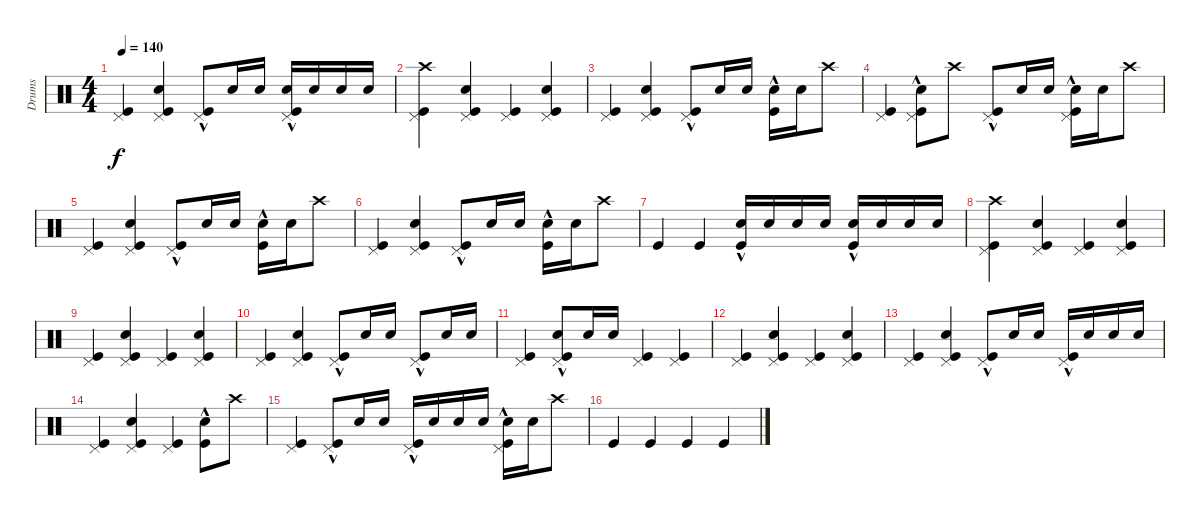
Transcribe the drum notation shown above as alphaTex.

\track ("Drums" "Drums") {instrument percussion}
\staff {score}
\articulation defaults
\ts (4 4)
\tempo 140
\clef neutral
\ks c
("Kick (hit)" "Pedal Hi-Hat (hit)").4{dy f} ("Kick (hit)" "Snare (hit) 2" "Pedal Hi-Hat (hit)").4 ("Kick (hit)"{hac} "Pedal Hi-Hat (hit)").8 "Snare (hit) 2".16 "Snare (hit) 2".16 ("Kick (hit)"{hac} "Snare (hit) 2" "Pedal Hi-Hat (hit)").16 "Snare (hit) 2".16 "Snare (hit) 2".16 "Snare (hit) 2".16 |
("Kick (hit)" "Pedal Hi-Hat (hit)" "Crash high (hit)").4 ("Kick (hit)" "Pedal Hi-Hat (hit)" "Snare (hit) 2").4 ("Kick (hit)" "Pedal Hi-Hat (hit)").4 ("Kick (hit)" "Pedal Hi-Hat (hit)" "Snare (hit) 2").4 |
("Kick (hit)" "Pedal Hi-Hat (hit)").4 ("Kick (hit)" "Snare (hit) 2" "Pedal Hi-Hat (hit)").4 ("Kick (hit)"{hac} "Pedal Hi-Hat (hit)").8 "Snare (hit) 2".16 "Snare (hit) 2".16 ("Kick (hit)"{hac} "Snare (hit) 2").16 "Snare (hit) 2".16 "Crash high (hit)".8 |
("Kick (hit)" "Pedal Hi-Hat (hit)").4 ("Kick (hit)"{hac} "Snare (hit) 2" "Pedal Hi-Hat (hit)").8 "Crash high (hit)".8 ("Kick (hit)"{hac} "Pedal Hi-Hat (hit)").8 "Snare (hit) 2".16 "Snare (hit) 2".16 ("Kick (hit)"{hac} "Snare (hit) 2" "Pedal Hi-Hat (hit)").16 "Snare (hit) 2".16 "Crash high (hit)".8 |
("Kick (hit)" "Pedal Hi-Hat (hit)").4 ("Kick (hit)" "Snare (hit) 2" "Pedal Hi-Hat (hit)").4 ("Kick (hit)"{hac} "Pedal Hi-Hat (hit)").8 "Snare (hit) 2".16 "Snare (hit) 2".16 ("Kick (hit)"{hac} "Snare (hit) 2").16 "Snare (hit) 2".16 "Crash high (hit)".8 |
("Kick (hit)" "Pedal Hi-Hat (hit)").4 ("Kick (hit)" "Snare (hit) 2" "Pedal Hi-Hat (hit)").4 ("Kick (hit)"{hac} "Pedal Hi-Hat (hit)").8 "Snare (hit) 2".16 "Snare (hit) 2".16 ("Kick (hit)"{hac} "Snare (hit) 2").16 "Snare (hit) 2".16 "Crash high (hit)".8 |
"Kick (hit)".4 "Kick (hit)".4 ("Kick (hit)"{hac} "Snare (hit) 2").16 "Snare (hit) 2".16 "Snare (hit) 2".16 "Snare (hit) 2".16 ("Kick (hit)"{hac} "Snare (hit) 2").16 "Snare (hit) 2".16 "Snare (hit) 2".16 "Snare (hit) 2".16 |
("Kick (hit)" "Crash high (hit)" "Pedal Hi-Hat (hit)").4 ("Kick (hit)" "Snare (hit) 2" "Pedal Hi-Hat (hit)").4 ("Kick (hit)" "Pedal Hi-Hat (hit)").4 ("Kick (hit)" "Snare (hit) 2" "Pedal Hi-Hat (hit)").4 |
("Kick (hit)" "Pedal Hi-Hat (hit)").4 ("Kick (hit)" "Snare (hit) 2" "Pedal Hi-Hat (hit)").4 ("Kick (hit)" "Pedal Hi-Hat (hit)").4 ("Kick (hit)" "Snare (hit) 2" "Pedal Hi-Hat (hit)").4 |
("Kick (hit)" "Pedal Hi-Hat (hit)").4 ("Kick (hit)" "Snare (hit) 2" "Pedal Hi-Hat (hit)").4 ("Kick (hit)"{hac} "Pedal Hi-Hat (hit)").8 "Snare (hit) 2".16 "Snare (hit) 2".16 ("Kick (hit)"{hac} "Pedal Hi-Hat (hit)").8 "Snare (hit) 2".16 "Snare (hit) 2".16 |
("Pedal Hi-Hat (hit)" "Kick (hit)").4 ("Kick (hit)"{hac} "Snare (hit) 2" "Pedal Hi-Hat (hit)").8 "Snare (hit) 2".16 "Snare (hit) 2".16 ("Pedal Hi-Hat (hit)" "Kick (hit)").4 ("Pedal Hi-Hat (hit)" "Kick (hit)").4 |
("Kick (hit)" "Pedal Hi-Hat (hit)").4 ("Kick (hit)" "Snare (hit) 2" "Pedal Hi-Hat (hit)").4 ("Kick (hit)" "Pedal Hi-Hat (hit)").4 ("Kick (hit)" "Snare (hit) 2" "Pedal Hi-Hat (hit)").4 |
("Kick (hit)" "Pedal Hi-Hat (hit)").4 ("Kick (hit)" "Snare (hit) 2" "Pedal Hi-Hat (hit)").4 ("Kick (hit)"{hac} "Pedal Hi-Hat (hit)").8 "Snare (hit) 2".16 "Snare (hit) 2".16 ("Kick (hit)"{hac} "Pedal Hi-Hat (hit)").16 "Snare (hit) 2".16 "Snare (hit) 2".16 "Snare (hit) 2".16 |
("Kick (hit)" "Pedal Hi-Hat (hit)").4 ("Kick (hit)" "Snare (hit) 2" "Pedal Hi-Hat (hit)").4 ("Kick (hit)" "Pedal Hi-Hat (hit)").4 ("Kick (hit)"{hac} "Snare (hit) 2").8 "Crash high (hit)".8 |
("Kick (hit)" "Pedal Hi-Hat (hit)").4 ("Pedal Hi-Hat (hit)" "Kick (hit)"{hac}).8 "Snare (hit) 2".16 "Snare (hit) 2".16 ("Kick (hit)"{hac} "Pedal Hi-Hat (hit)").16 "Snare (hit) 2".16 "Snare (hit) 2".16 "Snare (hit) 2".16 ("Kick (hit)"{hac} "Pedal Hi-Hat (hit)" "Snare (hit) 2").16 "Snare (hit) 2".16 "Crash high (hit)".8 |
"Kick (hit)".4 "Kick (hit)".4 "Kick (hit)".4 "Kick (hit)".4
